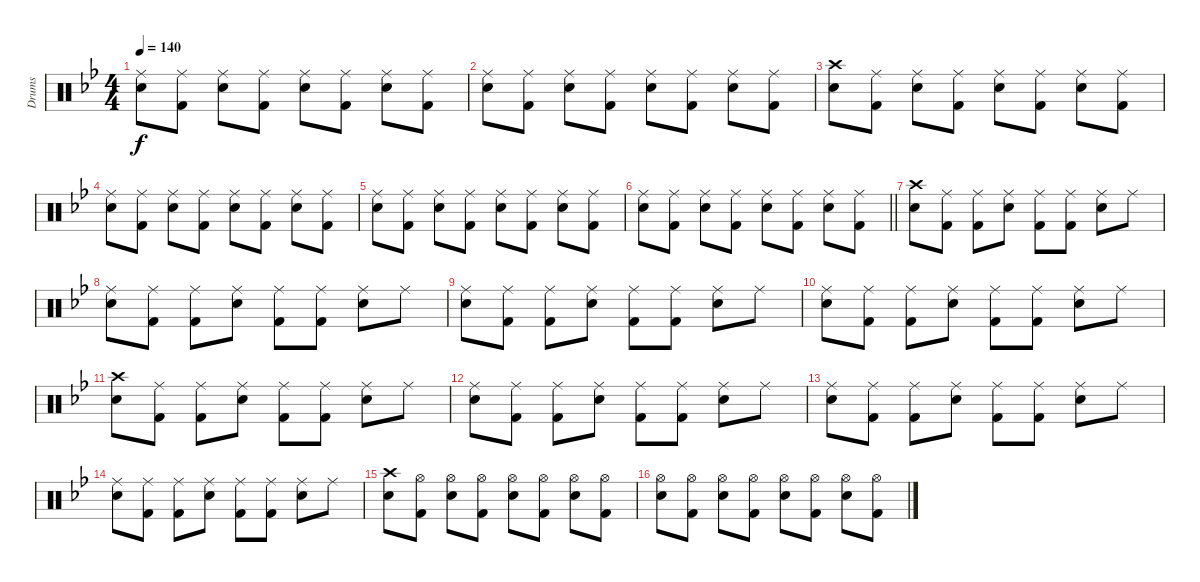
\track ("Drums" "Drums") {instrument percussion}
\staff {score}
\articulation defaults
\ts (4 4)
\tempo 140
\clef neutral
\ks bb
("Ride (middle)" "Snare (hit) 2").8{dy f} ("Ride (middle)" "Kick (hit) 2").8 ("Ride (middle)" "Snare (hit) 2").8 ("Ride (middle)" "Kick (hit) 2").8 ("Ride (middle)" "Snare (hit) 2").8 ("Ride (middle)" "Kick (hit) 2").8 ("Ride (middle)" "Snare (hit) 2").8 ("Ride (middle)" "Kick (hit) 2").8 |
("Ride (middle)" "Snare (hit) 2").8 ("Ride (middle)" "Kick (hit) 2").8 ("Ride (middle)" "Snare (hit) 2").8 ("Ride (middle)" "Kick (hit) 2").8 ("Ride (middle)" "Snare (hit) 2").8 ("Ride (middle)" "Kick (hit) 2").8 ("Ride (middle)" "Snare (hit) 2").8 ("Ride (middle)" "Kick (hit) 2").8 |
("Crash high (hit)" "Snare (hit) 2").8 ("Ride (middle)" "Kick (hit) 2").8 ("Ride (middle)" "Snare (hit) 2").8 ("Ride (middle)" "Kick (hit) 2").8 ("Ride (middle)" "Snare (hit) 2").8 ("Ride (middle)" "Kick (hit) 2").8 ("Ride (middle)" "Snare (hit) 2").8 ("Ride (middle)" "Kick (hit) 2").8 |
("Ride (middle)" "Snare (hit) 2").8 ("Ride (middle)" "Kick (hit) 2").8 ("Ride (middle)" "Snare (hit) 2").8 ("Ride (middle)" "Kick (hit) 2").8 ("Ride (middle)" "Snare (hit) 2").8 ("Ride (middle)" "Kick (hit) 2").8 ("Ride (middle)" "Snare (hit) 2").8 ("Ride (middle)" "Kick (hit) 2").8 |
("Ride (middle)" "Snare (hit) 2").8 ("Ride (middle)" "Kick (hit) 2").8 ("Ride (middle)" "Snare (hit) 2").8 ("Ride (middle)" "Kick (hit) 2").8 ("Ride (middle)" "Snare (hit) 2").8 ("Ride (middle)" "Kick (hit) 2").8 ("Ride (middle)" "Snare (hit) 2").8 ("Ride (middle)" "Kick (hit) 2").8 |
\barLineRight lightlight
("Ride (middle)" "Snare (hit) 2").8 ("Ride (middle)" "Kick (hit) 2").8 ("Ride (middle)" "Snare (hit) 2").8 ("Ride (middle)" "Kick (hit) 2").8 ("Ride (middle)" "Snare (hit) 2").8 ("Ride (middle)" "Kick (hit) 2").8 ("Ride (middle)" "Snare (hit) 2").8 ("Ride (middle)" "Kick (hit) 2").8 |
("Crash high (hit)" "Snare (hit) 2").8 ("Ride (middle)" "Kick (hit) 2").8 ("Ride (middle)" "Kick (hit) 2").8 ("Ride (middle)" "Snare (hit) 2").8 ("Ride (middle)" "Kick (hit) 2").8 ("Ride (middle)" "Kick (hit) 2").8 ("Ride (middle)" "Snare (hit) 2").8 "Ride (middle)".8 |
("Ride (middle)" "Snare (hit) 2").8 ("Ride (middle)" "Kick (hit) 2").8 ("Ride (middle)" "Kick (hit) 2").8 ("Ride (middle)" "Snare (hit) 2").8 ("Ride (middle)" "Kick (hit) 2").8 ("Ride (middle)" "Kick (hit) 2").8 ("Ride (middle)" "Snare (hit) 2").8 "Ride (middle)".8 |
("Ride (middle)" "Snare (hit) 2").8 ("Ride (middle)" "Kick (hit) 2").8 ("Ride (middle)" "Kick (hit) 2").8 ("Ride (middle)" "Snare (hit) 2").8 ("Ride (middle)" "Kick (hit) 2").8 ("Ride (middle)" "Kick (hit) 2").8 ("Ride (middle)" "Snare (hit) 2").8 "Ride (middle)".8 |
("Ride (middle)" "Snare (hit) 2").8 ("Ride (middle)" "Kick (hit) 2").8 ("Ride (middle)" "Kick (hit) 2").8 ("Ride (middle)" "Snare (hit) 2").8 ("Ride (middle)" "Kick (hit) 2").8 ("Ride (middle)" "Kick (hit) 2").8 ("Ride (middle)" "Snare (hit) 2").8 "Ride (middle)".8 |
("Crash high (hit)" "Snare (hit) 2").8 ("Ride (middle)" "Kick (hit) 2").8 ("Ride (middle)" "Kick (hit) 2").8 ("Ride (middle)" "Snare (hit) 2").8 ("Ride (middle)" "Kick (hit) 2").8 ("Ride (middle)" "Kick (hit) 2").8 ("Ride (middle)" "Snare (hit) 2").8 "Ride (middle)".8 |
("Ride (middle)" "Snare (hit) 2").8 ("Ride (middle)" "Kick (hit) 2").8 ("Ride (middle)" "Kick (hit) 2").8 ("Ride (middle)" "Snare (hit) 2").8 ("Ride (middle)" "Kick (hit) 2").8 ("Ride (middle)" "Kick (hit) 2").8 ("Ride (middle)" "Snare (hit) 2").8 "Ride (middle)".8 |
("Ride (middle)" "Snare (hit) 2").8 ("Ride (middle)" "Kick (hit) 2").8 ("Ride (middle)" "Kick (hit) 2").8 ("Ride (middle)" "Snare (hit) 2").8 ("Ride (middle)" "Kick (hit) 2").8 ("Ride (middle)" "Kick (hit) 2").8 ("Ride (middle)" "Snare (hit) 2").8 "Ride (middle)".8 |
("Ride (middle)" "Snare (hit) 2").8 ("Ride (middle)" "Kick (hit) 2").8 ("Ride (middle)" "Kick (hit) 2").8 ("Ride (middle)" "Snare (hit) 2").8 ("Ride (middle)" "Kick (hit) 2").8 ("Ride (middle)" "Kick (hit) 2").8 ("Ride (middle)" "Snare (hit) 2").8 "Ride (middle)".8 |
("Crash high (hit)" "Snare (hit) 2").8 ("Hi-Hat (open)" "Kick (hit) 2").8 ("Hi-Hat (open)" "Snare (hit) 2").8 ("Hi-Hat (open)" "Kick (hit) 2").8 ("Hi-Hat (open)" "Snare (hit) 2").8 ("Hi-Hat (open)" "Kick (hit) 2").8 ("Hi-Hat (open)" "Snare (hit) 2").8 ("Hi-Hat (open)" "Kick (hit) 2").8 |
("Hi-Hat (open)" "Snare (hit) 2").8 ("Hi-Hat (open)" "Kick (hit) 2").8 ("Hi-Hat (open)" "Snare (hit) 2").8 ("Hi-Hat (open)" "Kick (hit) 2").8 ("Hi-Hat (open)" "Snare (hit) 2").8 ("Hi-Hat (open)" "Kick (hit) 2").8 ("Hi-Hat (open)" "Snare (hit) 2").8 ("Hi-Hat (open)" "Kick (hit) 2").8
